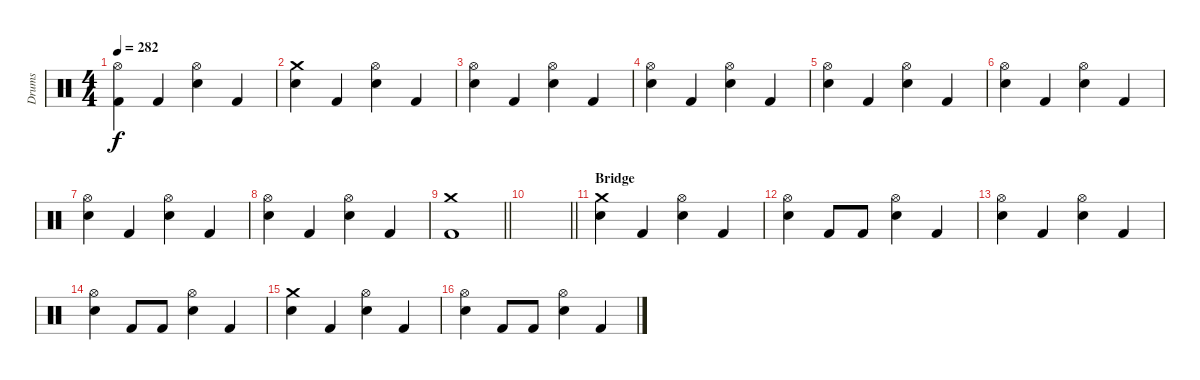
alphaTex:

\track ("Drums" "Drums") {instrument percussion}
\staff {score}
\articulation defaults
\ts (4 4)
\tempo 282
\clef neutral
\ks c
("Hi-Hat (open)" "Kick (hit) 2").4{dy f} "Kick (hit) 2".4 ("Hi-Hat (open)" "Electric Snare (hit)").4 "Kick (hit) 2".4 |
("Crash medium (hit)" "Electric Snare (hit)").4 "Kick (hit) 2".4 ("Hi-Hat (open)" "Electric Snare (hit)").4 "Kick (hit) 2".4 |
("Hi-Hat (open)" "Electric Snare (hit)").4 "Kick (hit) 2".4 ("Hi-Hat (open)" "Electric Snare (hit)").4 "Kick (hit) 2".4 |
("Hi-Hat (open)" "Electric Snare (hit)").4 "Kick (hit) 2".4 ("Hi-Hat (open)" "Electric Snare (hit)").4 "Kick (hit) 2".4 |
("Hi-Hat (open)" "Electric Snare (hit)").4 "Kick (hit) 2".4 ("Hi-Hat (open)" "Electric Snare (hit)").4 "Kick (hit) 2".4 |
("Hi-Hat (open)" "Electric Snare (hit)").4 "Kick (hit) 2".4 ("Hi-Hat (open)" "Electric Snare (hit)").4 "Kick (hit) 2".4 |
("Hi-Hat (open)" "Electric Snare (hit)").4 "Kick (hit) 2".4 ("Hi-Hat (open)" "Electric Snare (hit)").4 "Kick (hit) 2".4 |
("Hi-Hat (open)" "Electric Snare (hit)").4 "Kick (hit) 2".4 ("Hi-Hat (open)" "Electric Snare (hit)").4 "Kick (hit) 2".4 |
\barLineRight lightlight
("Crash medium (hit)" "Kick (hit) 2").1 |
\barLineRight lightlight
|
\section ("" "Bridge")
("Crash medium (hit)" "Electric Snare (hit)").4 "Kick (hit) 2".4 ("Hi-Hat (open)" "Electric Snare (hit)").4 "Kick (hit) 2".4 |
("Hi-Hat (open)" "Electric Snare (hit)").4 "Kick (hit) 2".8 "Kick (hit) 2".8 ("Hi-Hat (open)" "Electric Snare (hit)").4 "Kick (hit) 2".4 |
("Hi-Hat (open)" "Electric Snare (hit)").4 "Kick (hit) 2".4 ("Hi-Hat (open)" "Electric Snare (hit)").4 "Kick (hit) 2".4 |
("Hi-Hat (open)" "Electric Snare (hit)").4 "Kick (hit) 2".8 "Kick (hit) 2".8 ("Hi-Hat (open)" "Electric Snare (hit)").4 "Kick (hit) 2".4 |
("Crash medium (hit)" "Electric Snare (hit)").4 "Kick (hit) 2".4 ("Hi-Hat (open)" "Electric Snare (hit)").4 "Kick (hit) 2".4 |
("Hi-Hat (open)" "Electric Snare (hit)").4 "Kick (hit) 2".8 "Kick (hit) 2".8 ("Hi-Hat (open)" "Electric Snare (hit)").4 "Kick (hit) 2".4
